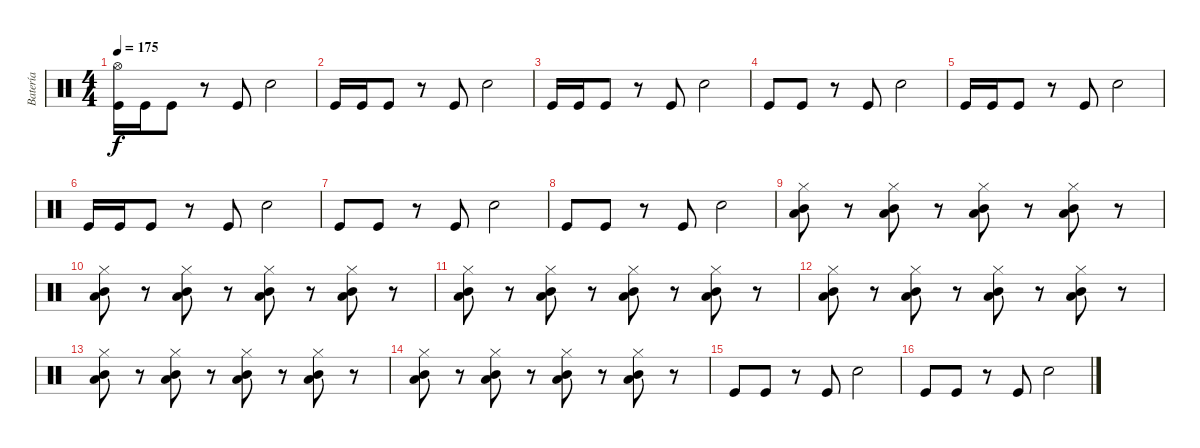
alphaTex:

\track ("Batería" "Batería") {instrument percussion}
\staff {score}
\articulation defaults
\ts (4 4)
\tempo 175
\clef neutral
\ks c
("Kick (hit)" "Hi-Hat (open)").16{dy f} "Kick (hit)".16 "Kick (hit)".8 r.8 "Kick (hit)".8 "Snare (hit) 2".2 |
"Kick (hit)".16 "Kick (hit)".16 "Kick (hit)".8 r.8 "Kick (hit)".8 "Snare (hit) 2".2 |
"Kick (hit)".16 "Kick (hit)".16 "Kick (hit)".8 r.8 "Kick (hit)".8 "Snare (hit) 2".2 |
"Kick (hit)".8 "Kick (hit)".8 r.8 "Kick (hit)".8 "Snare (hit) 2".2 |
"Kick (hit)".16 "Kick (hit)".16 "Kick (hit)".8 r.8 "Kick (hit)".8 "Snare (hit) 2".2 |
"Kick (hit)".16 "Kick (hit)".16 "Kick (hit)".8 r.8 "Kick (hit)".8 "Snare (hit) 2".2 |
"Kick (hit)".8 "Kick (hit)".8 r.8 "Kick (hit)".8 "Snare (hit) 2".2 |
"Kick (hit)".8 "Kick (hit)".8 r.8 "Kick (hit)".8 "Snare (hit) 2".2 |
("Hi-Hat (closed)" "Low Floor Tom (hit)" "Mid Tom (hit)").8 r.8 ("Hi-Hat (closed)" "Low Floor Tom (hit)" "Mid Tom (hit)").8 r.8 ("Hi-Hat (closed)" "Low Floor Tom (hit)" "Mid Tom (hit)").8 r.8 ("Hi-Hat (closed)" "Low Floor Tom (hit)" "Mid Tom (hit)").8 r.8 |
("Hi-Hat (closed)" "Low Floor Tom (hit)" "Mid Tom (hit)").8 r.8 ("Hi-Hat (closed)" "Low Floor Tom (hit)" "Mid Tom (hit)").8 r.8 ("Hi-Hat (closed)" "Low Floor Tom (hit)" "Mid Tom (hit)").8 r.8 ("Hi-Hat (closed)" "Low Floor Tom (hit)" "Mid Tom (hit)").8 r.8 |
("Hi-Hat (closed)" "Low Floor Tom (hit)" "Mid Tom (hit)").8 r.8 ("Hi-Hat (closed)" "Low Floor Tom (hit)" "Mid Tom (hit)").8 r.8 ("Hi-Hat (closed)" "Low Floor Tom (hit)" "Mid Tom (hit)").8 r.8 ("Hi-Hat (closed)" "Low Floor Tom (hit)" "Mid Tom (hit)").8 r.8 |
("Hi-Hat (closed)" "Low Floor Tom (hit)" "Mid Tom (hit)").8 r.8 ("Hi-Hat (closed)" "Low Floor Tom (hit)" "Mid Tom (hit)").8 r.8 ("Hi-Hat (closed)" "Low Floor Tom (hit)" "Mid Tom (hit)").8 r.8 ("Hi-Hat (closed)" "Low Floor Tom (hit)" "Mid Tom (hit)").8 r.8 |
("Hi-Hat (closed)" "Low Floor Tom (hit)" "Mid Tom (hit)").8 r.8 ("Hi-Hat (closed)" "Low Floor Tom (hit)" "Mid Tom (hit)").8 r.8 ("Hi-Hat (closed)" "Low Floor Tom (hit)" "Mid Tom (hit)").8 r.8 ("Hi-Hat (closed)" "Low Floor Tom (hit)" "Mid Tom (hit)").8 r.8 |
("Hi-Hat (closed)" "Low Floor Tom (hit)" "Mid Tom (hit)").8 r.8 ("Hi-Hat (closed)" "Low Floor Tom (hit)" "Mid Tom (hit)").8 r.8 ("Hi-Hat (closed)" "Low Floor Tom (hit)" "Mid Tom (hit)").8 r.8 ("Hi-Hat (closed)" "Low Floor Tom (hit)" "Mid Tom (hit)").8 r.8 |
"Kick (hit)".8 "Kick (hit)".8 r.8 "Kick (hit)".8 "Snare (hit) 2".2 |
"Kick (hit)".8 "Kick (hit)".8 r.8 "Kick (hit)".8 "Snare (hit) 2".2
